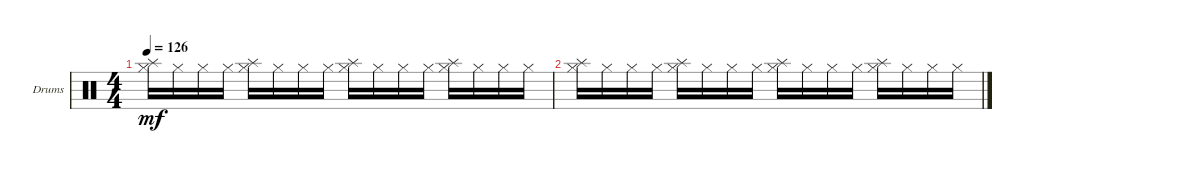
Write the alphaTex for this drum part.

\defaultSystemsLayout 4
\bracketExtendMode groupsimilarinstruments
\firstSystemTrackNameOrientation horizontal
\otherSystemsTrackNameOrientation horizontal
\track ("Drumkit" "Drums") {instrument percussion}
\staff {score}
\articulation defaults
\ts (4 4)
\tempo 126
\clef neutral
\ks c
("Hi-Hat (closed)" "Splash (hit)").16{dy mf} "Hi-Hat (closed)".16 "Hi-Hat (closed)".16 "Hi-Hat (closed)".16 ("Hi-Hat (closed)" "Splash (hit)").16 "Hi-Hat (closed)".16 "Hi-Hat (closed)".16 "Hi-Hat (closed)".16 ("Hi-Hat (closed)" "Splash (hit)").16 "Hi-Hat (closed)".16 "Hi-Hat (closed)".16 "Hi-Hat (closed)".16 ("Hi-Hat (closed)" "Splash (hit)").16 "Hi-Hat (closed)".16 "Hi-Hat (closed)".16 "Hi-Hat (closed)".16 |
("Hi-Hat (closed)" "Splash (hit)").16 "Hi-Hat (closed)".16 "Hi-Hat (closed)".16 "Hi-Hat (closed)".16 ("Hi-Hat (closed)" "Splash (hit)").16 "Hi-Hat (closed)".16 "Hi-Hat (closed)".16 "Hi-Hat (closed)".16 ("Hi-Hat (closed)" "Splash (hit)").16 "Hi-Hat (closed)".16 "Hi-Hat (closed)".16 "Hi-Hat (closed)".16 ("Hi-Hat (closed)" "Splash (hit)").16 "Hi-Hat (closed)".16 "Hi-Hat (closed)".16 "Hi-Hat (closed)".16
